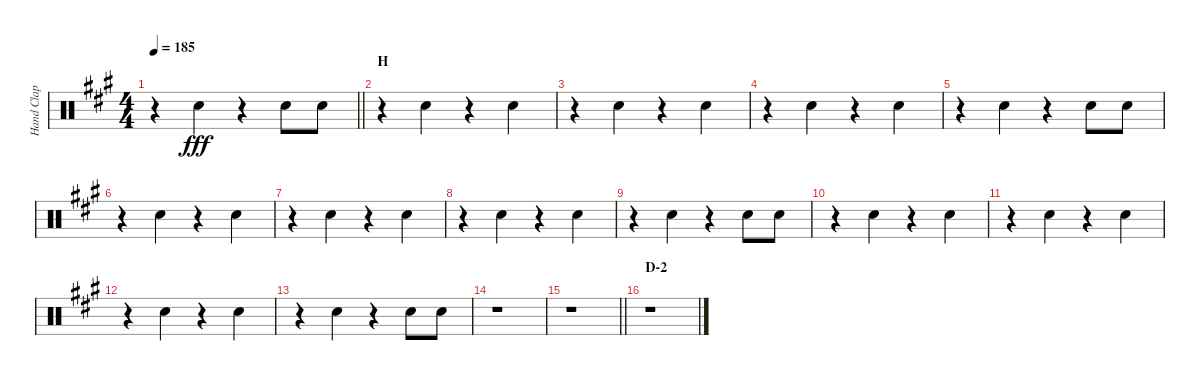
\track ("Hand Clap" "Hand Clap") {instrument percussion}
\staff {score}
\articulation defaults
\ts (4 4)
\tempo 185
\clef neutral
\barLineRight lightlight
\ks a
r.4{dy fff} "Hand Clap (hit)".4 r.4 "Hand Clap (hit)".8 "Hand Clap (hit)".8 |
\section ("" "H")
r.4 "Hand Clap (hit)".4 r.4 "Hand Clap (hit)".4 |
r.4 "Hand Clap (hit)".4 r.4 "Hand Clap (hit)".4 |
r.4 "Hand Clap (hit)".4 r.4 "Hand Clap (hit)".4 |
r.4 "Hand Clap (hit)".4 r.4 "Hand Clap (hit)".8 "Hand Clap (hit)".8 |
r.4 "Hand Clap (hit)".4 r.4 "Hand Clap (hit)".4 |
r.4 "Hand Clap (hit)".4 r.4 "Hand Clap (hit)".4 |
r.4 "Hand Clap (hit)".4 r.4 "Hand Clap (hit)".4 |
r.4 "Hand Clap (hit)".4 r.4 "Hand Clap (hit)".8 "Hand Clap (hit)".8 |
r.4 "Hand Clap (hit)".4 r.4 "Hand Clap (hit)".4 |
r.4 "Hand Clap (hit)".4 r.4 "Hand Clap (hit)".4 |
r.4 "Hand Clap (hit)".4 r.4 "Hand Clap (hit)".4 |
r.4 "Hand Clap (hit)".4 r.4 "Hand Clap (hit)".8 "Hand Clap (hit)".8 |
r.1 |
\barLineRight lightlight
r.1 |
\section ("" "D-2")
r.1
